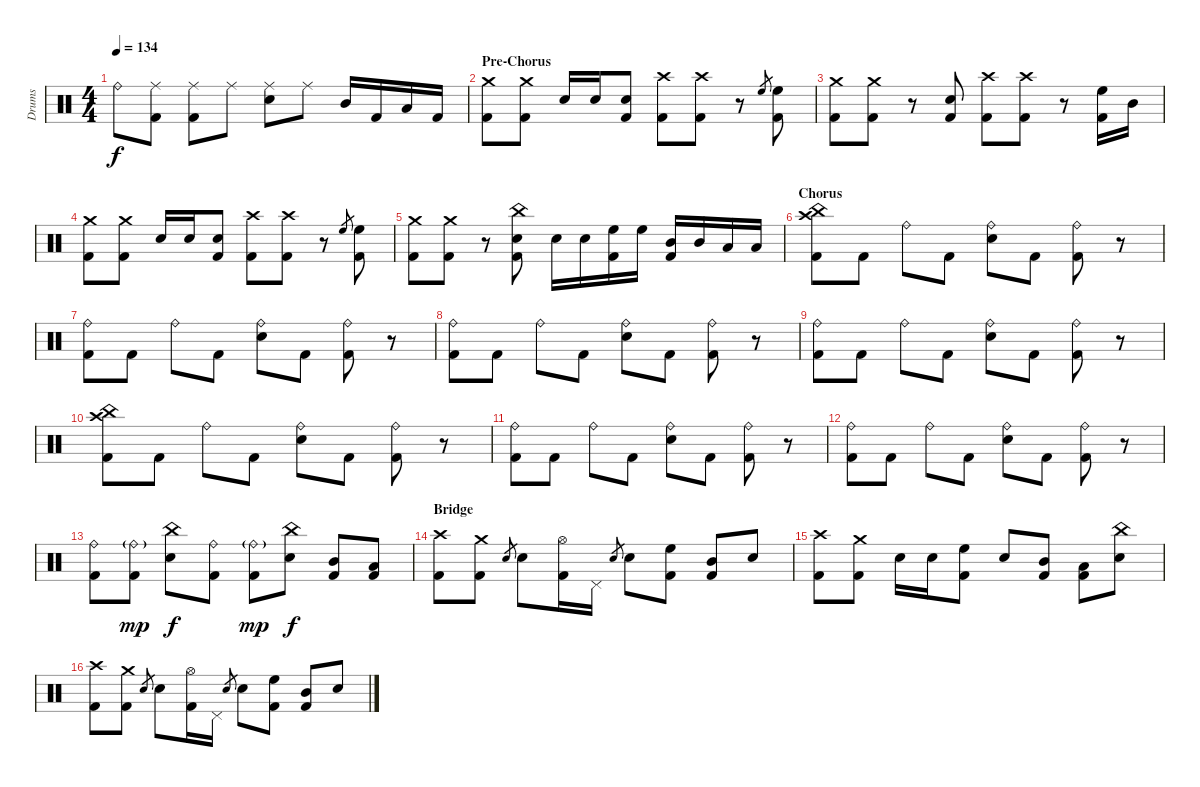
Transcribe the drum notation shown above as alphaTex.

\track ("Drums" "Drums") {instrument percussion}
\staff {score}
\articulation defaults
\ts (4 4)
\tempo 134
\clef neutral
\ks c "Ride (bell)".8{dy f}
("Ride (middle)" "Kick (hit) 2").8 ("Ride (middle)" "Kick (hit) 2").8 "Ride (middle)".8 ("Ride (middle)" "Electric Snare (hit)").8 "Ride (middle)".8 "Mid Tom (hit)".16 "Kick (hit) 2".16 "Low Tom (hit)".16 "Kick (hit) 2".16 |
\section ("" "Pre-Chorus")
("Crash medium (hit)" "Kick (hit) 2").8 ("Crash medium (hit)" "Kick (hit) 2").8 "Electric Snare (hit)".16 "Electric Snare (hit)".16 ("Electric Snare (hit)" "Kick (hit) 2").8 ("Crash high (hit)" "Kick (hit) 2").8 ("Crash high (hit)" "Kick (hit) 2").8 r.8 "High Floor Tom (hit)".8{gr} ("High Floor Tom (hit)" "Kick (hit) 2").8 |
("Crash medium (hit)" "Kick (hit) 2").8 ("Crash medium (hit)" "Kick (hit) 2").8 r.8 ("Electric Snare (hit)" "Kick (hit) 2").8 ("Crash high (hit)" "Kick (hit) 2").8 ("Crash high (hit)" "Kick (hit) 2").8 r.8 ("High Floor Tom (hit)" "Kick (hit) 2").16 "Mid Tom (hit)".16 |
("Crash medium (hit)" "Kick (hit) 2").8 ("Crash medium (hit)" "Kick (hit) 2").8 "Electric Snare (hit)".16 "Electric Snare (hit)".16 ("Electric Snare (hit)" "Kick (hit) 2").8 ("Crash high (hit)" "Kick (hit) 2").8 ("Crash high (hit)" "Kick (hit) 2").8 r.8 "High Floor Tom (hit)".8{gr} ("High Floor Tom (hit)" "Kick (hit) 2").8 |
("Crash medium (hit)" "Kick (hit) 2").8 ("Crash medium (hit)" "Kick (hit) 2").8 r.8 ("China (hit)" "Electric Snare (hit)" "Kick (hit) 2").8 "Electric Snare (hit)".16 "Electric Snare (hit)".16 ("High Floor Tom (hit)" "Kick (hit) 2").16 "High Floor Tom (hit)".16 ("Mid Tom (hit)" "Kick (hit) 2").16 "Mid Tom (hit)".16 "Low Tom (hit)".16 "Low Tom (hit)".16 |
\section ("" "Chorus")
("Crash high (hit)" "China (hit)" "Kick (hit) 2").8 "Kick (hit) 2".8 "Ride (bell)".8 "Kick (hit) 2".8 ("Ride (bell)" "Electric Snare (hit)").8 "Kick (hit) 2".8 ("Ride (bell)" "Kick (hit) 2").8 r.8 |
("Ride (bell)" "Kick (hit) 2").8 "Kick (hit) 2".8 "Ride (bell)".8 "Kick (hit) 2".8 ("Ride (bell)" "Electric Snare (hit)").8 "Kick (hit) 2".8 ("Ride (bell)" "Kick (hit) 2").8 r.8 |
("Ride (bell)" "Kick (hit) 2").8 "Kick (hit) 2".8 "Ride (bell)".8 "Kick (hit) 2".8 ("Ride (bell)" "Electric Snare (hit)").8 "Kick (hit) 2".8 ("Ride (bell)" "Kick (hit) 2").8 r.8 |
("Ride (bell)" "Kick (hit) 2").8 "Kick (hit) 2".8 "Ride (bell)".8 "Kick (hit) 2".8 ("Ride (bell)" "Electric Snare (hit)").8 "Kick (hit) 2".8 ("Ride (bell)" "Kick (hit) 2").8 r.8 |
("Crash high (hit)" "China (hit)" "Kick (hit) 2").8 "Kick (hit) 2".8 "Ride (bell)".8 "Kick (hit) 2".8 ("Ride (bell)" "Electric Snare (hit)").8 "Kick (hit) 2".8 ("Ride (bell)" "Kick (hit) 2").8 r.8 |
("Ride (bell)" "Kick (hit) 2").8 "Kick (hit) 2".8 "Ride (bell)".8 "Kick (hit) 2".8 ("Ride (bell)" "Electric Snare (hit)").8 "Kick (hit) 2".8 ("Ride (bell)" "Kick (hit) 2").8 r.8 |
("Ride (bell)" "Kick (hit) 2").8 "Kick (hit) 2".8 "Ride (bell)".8 "Kick (hit) 2".8 ("Ride (bell)" "Electric Snare (hit)").8 "Kick (hit) 2".8 ("Ride (bell)" "Kick (hit) 2").8 r.8 |
("Ride (bell)" "Kick (hit) 2").8 ("Ride (bell)"{g} "Kick (hit) 2").8{dy mp} ("China (hit)" "Electric Snare (hit)").8{dy f} ("Ride (bell)" "Kick (hit) 2").8 ("Ride (bell)"{g} "Kick (hit) 2").8{dy mp} ("China (hit)" "Electric Snare (hit)").8{dy f} ("Mid Tom (hit)" "Kick (hit) 2").8 ("Low Tom (hit)" "Kick (hit) 2").8 |
\section ("" "Bridge")
("Crash high (hit)" "Kick (hit) 2").8 ("Crash medium (hit)" "Kick (hit) 2").8 "Electric Snare (hit)".8{gr} "Electric Snare (hit)".8 ("Hi-Hat (open)" "Kick (hit) 2").16 "Pedal Hi-Hat (hit)".16 "Electric Snare (hit)".8{gr} "Electric Snare (hit)".8 ("High Floor Tom (hit)" "Kick (hit) 2").8 ("Mid Tom (hit)" "Kick (hit) 2").8 "Electric Snare (hit)".8 |
("Crash high (hit)" "Kick (hit) 2").8 ("Crash medium (hit)" "Kick (hit) 2").8 "Electric Snare (hit)".16 "Electric Snare (hit)".16 ("High Floor Tom (hit)" "Kick (hit) 2").8 "Electric Snare (hit)".8 ("Mid Tom (hit)" "Kick (hit) 2").8 ("Low Tom (hit)" "Kick (hit) 2").8 ("China (hit)" "Electric Snare (hit)").8 |
("Crash high (hit)" "Kick (hit) 2").8 ("Crash medium (hit)" "Kick (hit) 2").8 "Electric Snare (hit)".8{gr} "Electric Snare (hit)".8 ("Hi-Hat (open)" "Kick (hit) 2").16 "Pedal Hi-Hat (hit)".16 "Electric Snare (hit)".8{gr} "Electric Snare (hit)".8 ("High Floor Tom (hit)" "Kick (hit) 2").8 ("Mid Tom (hit)" "Kick (hit) 2").8 "Electric Snare (hit)".8
